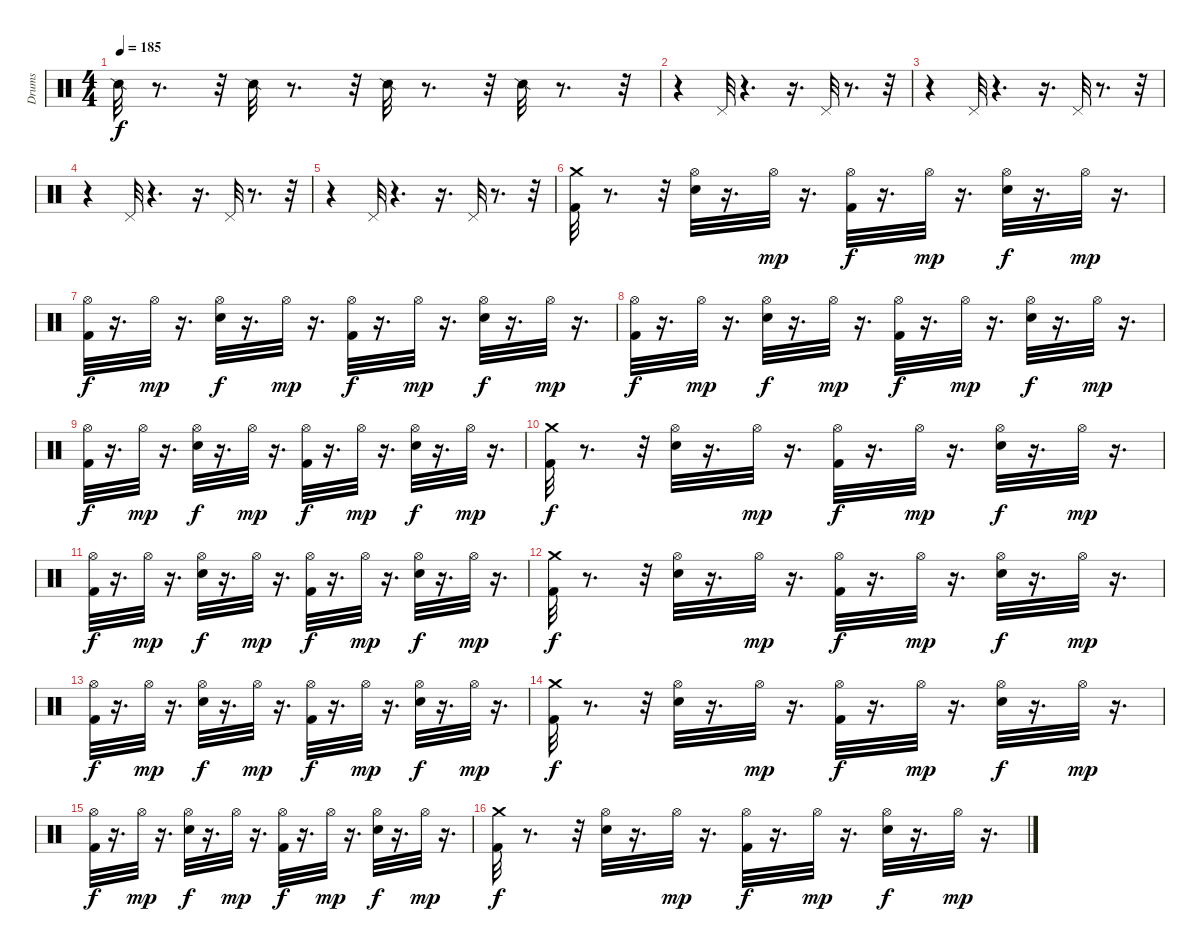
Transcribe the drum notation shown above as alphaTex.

\track ("Drums" "Drums") {instrument percussion}
\staff {score}
\articulation defaults
\ts (4 4)
\tempo 185
\clef neutral
\ks c "Snare (side stick) 2".32{dy f}
r.8{d} r.32 "Snare (side stick) 2".32 r.8{d} r.32 "Snare (side stick) 2".32 r.8{d} r.32 "Snare (side stick) 2".32 r.8{d} r.32 |
r.4 "Pedal Hi-Hat (hit)".32 r.4{d} r.16{d} "Pedal Hi-Hat (hit)".32 r.8{d} r.32 |
r.4 "Pedal Hi-Hat (hit)".32 r.4{d} r.16{d} "Pedal Hi-Hat (hit)".32 r.8{d} r.32 |
r.4 "Pedal Hi-Hat (hit)".32 r.4{d} r.16{d} "Pedal Hi-Hat (hit)".32 r.8{d} r.32 |
r.4 "Pedal Hi-Hat (hit)".32 r.4{d} r.16{d} "Pedal Hi-Hat (hit)".32 r.8{d} r.32 |
("Crash medium (hit)" "Kick (hit) 2").32 r.8{d} r.32 ("Hi-Hat (open)" "Electric Snare (hit)").32 r.16{d} "Hi-Hat (open)".32{dy mp} r.16{d} ("Hi-Hat (open)" "Kick (hit) 2").32{dy f} r.16{d} "Hi-Hat (open)".32{dy mp} r.16{d} ("Hi-Hat (open)" "Electric Snare (hit)").32{dy f} r.16{d} "Hi-Hat (open)".32{dy mp} r.16{d} |
("Hi-Hat (open)" "Kick (hit) 2").32{dy f} r.16{d} "Hi-Hat (open)".32{dy mp} r.16{d} ("Hi-Hat (open)" "Electric Snare (hit)").32{dy f} r.16{d} "Hi-Hat (open)".32{dy mp} r.16{d} ("Hi-Hat (open)" "Kick (hit) 2").32{dy f} r.16{d} "Hi-Hat (open)".32{dy mp} r.16{d} ("Hi-Hat (open)" "Electric Snare (hit)").32{dy f} r.16{d} "Hi-Hat (open)".32{dy mp} r.16{d} |
("Hi-Hat (open)" "Kick (hit) 2").32{dy f} r.16{d} "Hi-Hat (open)".32{dy mp} r.16{d} ("Hi-Hat (open)" "Electric Snare (hit)").32{dy f} r.16{d} "Hi-Hat (open)".32{dy mp} r.16{d} ("Hi-Hat (open)" "Kick (hit) 2").32{dy f} r.16{d} "Hi-Hat (open)".32{dy mp} r.16{d} ("Hi-Hat (open)" "Electric Snare (hit)").32{dy f} r.16{d} "Hi-Hat (open)".32{dy mp} r.16{d} |
("Hi-Hat (open)" "Kick (hit) 2").32{dy f} r.16{d} "Hi-Hat (open)".32{dy mp} r.16{d} ("Hi-Hat (open)" "Electric Snare (hit)").32{dy f} r.16{d} "Hi-Hat (open)".32{dy mp} r.16{d} ("Hi-Hat (open)" "Kick (hit) 2").32{dy f} r.16{d} "Hi-Hat (open)".32{dy mp} r.16{d} ("Hi-Hat (open)" "Electric Snare (hit)").32{dy f} r.16{d} "Hi-Hat (open)".32{dy mp} r.16{d} |
("Crash medium (hit)" "Kick (hit) 2").32{dy f} r.8{d} r.32 ("Hi-Hat (open)" "Electric Snare (hit)").32 r.16{d} "Hi-Hat (open)".32{dy mp} r.16{d} ("Hi-Hat (open)" "Kick (hit) 2").32{dy f} r.16{d} "Hi-Hat (open)".32{dy mp} r.16{d} ("Hi-Hat (open)" "Electric Snare (hit)").32{dy f} r.16{d} "Hi-Hat (open)".32{dy mp} r.16{d} |
("Hi-Hat (open)" "Kick (hit) 2").32{dy f} r.16{d} "Hi-Hat (open)".32{dy mp} r.16{d} ("Hi-Hat (open)" "Electric Snare (hit)").32{dy f} r.16{d} "Hi-Hat (open)".32{dy mp} r.16{d} ("Hi-Hat (open)" "Kick (hit) 2").32{dy f} r.16{d} "Hi-Hat (open)".32{dy mp} r.16{d} ("Hi-Hat (open)" "Electric Snare (hit)").32{dy f} r.16{d} "Hi-Hat (open)".32{dy mp} r.16{d} |
("Crash medium (hit)" "Kick (hit) 2").32{dy f} r.8{d} r.32 ("Hi-Hat (open)" "Electric Snare (hit)").32 r.16{d} "Hi-Hat (open)".32{dy mp} r.16{d} ("Hi-Hat (open)" "Kick (hit) 2").32{dy f} r.16{d} "Hi-Hat (open)".32{dy mp} r.16{d} ("Hi-Hat (open)" "Electric Snare (hit)").32{dy f} r.16{d} "Hi-Hat (open)".32{dy mp} r.16{d} |
("Hi-Hat (open)" "Kick (hit) 2").32{dy f} r.16{d} "Hi-Hat (open)".32{dy mp} r.16{d} ("Hi-Hat (open)" "Electric Snare (hit)").32{dy f} r.16{d} "Hi-Hat (open)".32{dy mp} r.16{d} ("Hi-Hat (open)" "Kick (hit) 2").32{dy f} r.16{d} "Hi-Hat (open)".32{dy mp} r.16{d} ("Hi-Hat (open)" "Electric Snare (hit)").32{dy f} r.16{d} "Hi-Hat (open)".32{dy mp} r.16{d} |
("Crash medium (hit)" "Kick (hit) 2").32{dy f} r.8{d} r.32 ("Hi-Hat (open)" "Electric Snare (hit)").32 r.16{d} "Hi-Hat (open)".32{dy mp} r.16{d} ("Hi-Hat (open)" "Kick (hit) 2").32{dy f} r.16{d} "Hi-Hat (open)".32{dy mp} r.16{d} ("Hi-Hat (open)" "Electric Snare (hit)").32{dy f} r.16{d} "Hi-Hat (open)".32{dy mp} r.16{d} |
("Hi-Hat (open)" "Kick (hit) 2").32{dy f} r.16{d} "Hi-Hat (open)".32{dy mp} r.16{d} ("Hi-Hat (open)" "Electric Snare (hit)").32{dy f} r.16{d} "Hi-Hat (open)".32{dy mp} r.16{d} ("Hi-Hat (open)" "Kick (hit) 2").32{dy f} r.16{d} "Hi-Hat (open)".32{dy mp} r.16{d} ("Hi-Hat (open)" "Electric Snare (hit)").32{dy f} r.16{d} "Hi-Hat (open)".32{dy mp} r.16{d} |
("Crash medium (hit)" "Kick (hit) 2").32{dy f} r.8{d} r.32 ("Hi-Hat (open)" "Electric Snare (hit)").32 r.16{d} "Hi-Hat (open)".32{dy mp} r.16{d} ("Hi-Hat (open)" "Kick (hit) 2").32{dy f} r.16{d} "Hi-Hat (open)".32{dy mp} r.16{d} ("Hi-Hat (open)" "Electric Snare (hit)").32{dy f} r.16{d} "Hi-Hat (open)".32{dy mp} r.16{d}
